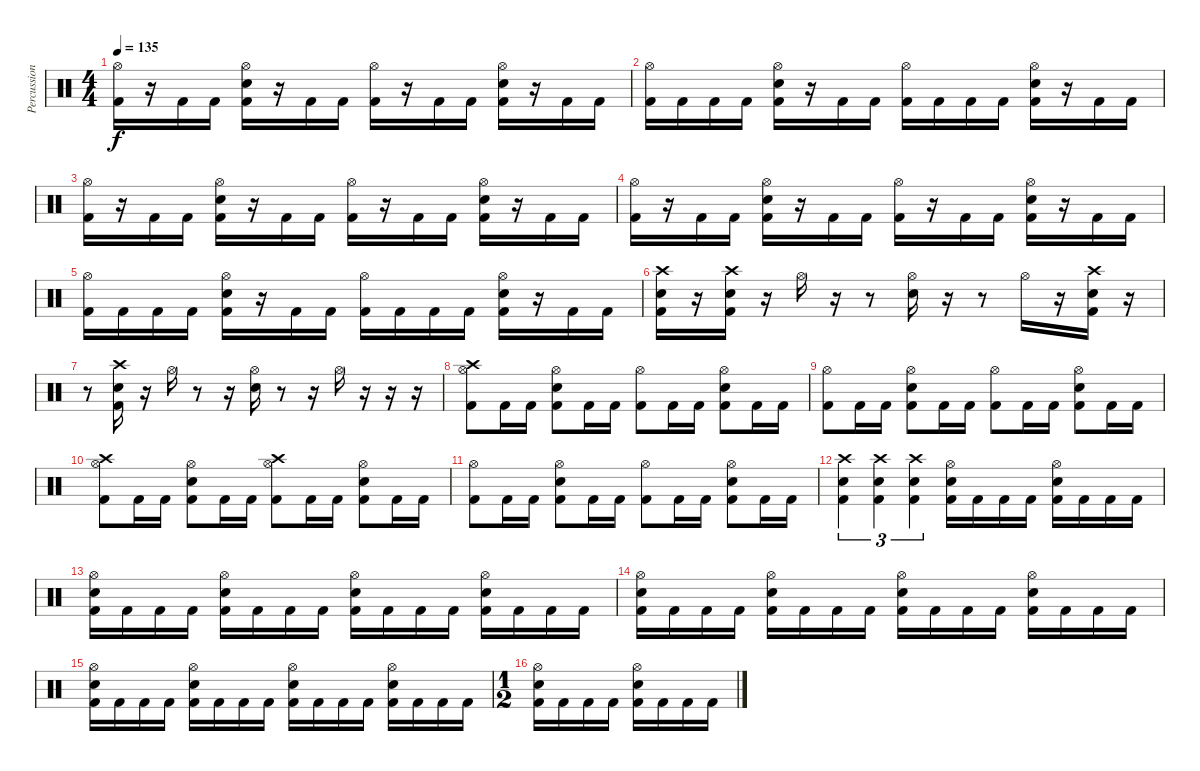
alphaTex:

\track ("Percussions" "Percussion") {instrument percussion}
\staff {score}
\articulation defaults
\ts (4 4)
\tempo 135
\clef neutral
\ks c
("Hi-Hat (open)" "Kick (hit) 2").16{dy f} r.16 "Kick (hit) 2".16 "Kick (hit) 2".16 ("Hi-Hat (open)" "Snare (hit) 2" "Kick (hit) 2").16 r.16 "Kick (hit) 2".16 "Kick (hit) 2".16 ("Hi-Hat (open)" "Kick (hit) 2").16 r.16 "Kick (hit) 2".16 "Kick (hit) 2".16 ("Hi-Hat (open)" "Snare (hit) 2" "Kick (hit) 2").16 r.16 "Kick (hit) 2".16 "Kick (hit) 2".16 |
("Hi-Hat (open)" "Kick (hit) 2").16 "Kick (hit) 2".16 "Kick (hit) 2".16 "Kick (hit) 2".16 ("Hi-Hat (open)" "Snare (hit) 2" "Kick (hit) 2").16 r.16 "Kick (hit) 2".16 "Kick (hit) 2".16 ("Hi-Hat (open)" "Kick (hit) 2").16 "Kick (hit) 2".16 "Kick (hit) 2".16 "Kick (hit) 2".16 ("Hi-Hat (open)" "Snare (hit) 2" "Kick (hit) 2").16 r.16 "Kick (hit) 2".16 "Kick (hit) 2".16 |
("Hi-Hat (open)" "Kick (hit) 2").16 r.16 "Kick (hit) 2".16 "Kick (hit) 2".16 ("Hi-Hat (open)" "Snare (hit) 2" "Kick (hit) 2").16 r.16 "Kick (hit) 2".16 "Kick (hit) 2".16 ("Hi-Hat (open)" "Kick (hit) 2").16 r.16 "Kick (hit) 2".16 "Kick (hit) 2".16 ("Hi-Hat (open)" "Snare (hit) 2" "Kick (hit) 2").16 r.16 "Kick (hit) 2".16 "Kick (hit) 2".16 |
("Hi-Hat (open)" "Kick (hit) 2").16 r.16 "Kick (hit) 2".16 "Kick (hit) 2".16 ("Hi-Hat (open)" "Snare (hit) 2" "Kick (hit) 2").16 r.16 "Kick (hit) 2".16 "Kick (hit) 2".16 ("Hi-Hat (open)" "Kick (hit) 2").16 r.16 "Kick (hit) 2".16 "Kick (hit) 2".16 ("Hi-Hat (open)" "Snare (hit) 2" "Kick (hit) 2").16 r.16 "Kick (hit) 2".16 "Kick (hit) 2".16 |
("Hi-Hat (open)" "Kick (hit) 2").16 "Kick (hit) 2".16 "Kick (hit) 2".16 "Kick (hit) 2".16 ("Hi-Hat (open)" "Snare (hit) 2" "Kick (hit) 2").16 r.16 "Kick (hit) 2".16 "Kick (hit) 2".16 ("Hi-Hat (open)" "Kick (hit) 2").16 "Kick (hit) 2".16 "Kick (hit) 2".16 "Kick (hit) 2".16 ("Hi-Hat (open)" "Snare (hit) 2" "Kick (hit) 2").16 r.16 "Kick (hit) 2".16 "Kick (hit) 2".16 |
("Crash high (hit)" "Snare (hit) 2" "Kick (hit) 2").16 r.16 ("Crash high (hit)" "Snare (hit) 2" "Kick (hit) 2").16 r.16 "Hi-Hat (open)".16 r.16 r.8 ("Hi-Hat (open)" "Snare (hit) 2").16 r.16 r.8 "Hi-Hat (open)".16 r.16 ("Crash high (hit)" "Snare (hit) 2" "Kick (hit) 2").16 r.16 |
r.8 ("Crash high (hit)" "Snare (hit) 2" "Kick (hit) 2").16 r.16 "Hi-Hat (open)".16 r.8 r.16 ("Hi-Hat (open)" "Snare (hit) 2").16 r.8 r.16 "Hi-Hat (open)".16 r.16 r.16 r.16 |
("Crash high (hit)" "Hi-Hat (open)" "Kick (hit) 2").8 "Kick (hit) 2".16 "Kick (hit) 2".16 ("Snare (hit) 2" "Hi-Hat (open)" "Kick (hit) 2").8 "Kick (hit) 2".16 "Kick (hit) 2".16 ("Hi-Hat (open)" "Kick (hit) 2").8 "Kick (hit) 2".16 "Kick (hit) 2".16 ("Hi-Hat (open)" "Snare (hit) 2" "Kick (hit) 2").8 "Kick (hit) 2".16 "Kick (hit) 2".16 |
("Hi-Hat (open)" "Kick (hit) 2").8 "Kick (hit) 2".16 "Kick (hit) 2".16 ("Snare (hit) 2" "Hi-Hat (open)" "Kick (hit) 2").8 "Kick (hit) 2".16 "Kick (hit) 2".16 ("Hi-Hat (open)" "Kick (hit) 2").8 "Kick (hit) 2".16 "Kick (hit) 2".16 ("Hi-Hat (open)" "Snare (hit) 2" "Kick (hit) 2").8 "Kick (hit) 2".16 "Kick (hit) 2".16 |
("Crash high (hit)" "Hi-Hat (open)" "Kick (hit) 2").8 "Kick (hit) 2".16 "Kick (hit) 2".16 ("Snare (hit) 2" "Hi-Hat (open)" "Kick (hit) 2").8 "Kick (hit) 2".16 "Kick (hit) 2".16 ("Crash high (hit)" "Hi-Hat (open)" "Kick (hit) 2").8 "Kick (hit) 2".16 "Kick (hit) 2".16 ("Hi-Hat (open)" "Snare (hit) 2" "Kick (hit) 2").8 "Kick (hit) 2".16 "Kick (hit) 2".16 |
("Hi-Hat (open)" "Kick (hit) 2").8 "Kick (hit) 2".16 "Kick (hit) 2".16 ("Snare (hit) 2" "Hi-Hat (open)" "Kick (hit) 2").8 "Kick (hit) 2".16 "Kick (hit) 2".16 ("Hi-Hat (open)" "Kick (hit) 2").8 "Kick (hit) 2".16 "Kick (hit) 2".16 ("Hi-Hat (open)" "Snare (hit) 2" "Kick (hit) 2").8 "Kick (hit) 2".16 "Kick (hit) 2".16 |
("Snare (hit) 2" "Crash high (hit)" "Kick (hit) 2").4{tu (3 2)} ("Snare (hit) 2" "Crash high (hit)" "Kick (hit) 2").4{tu (3 2)} ("Snare (hit) 2" "Crash high (hit)" "Kick (hit) 2").4{tu (3 2)} ("Snare (hit) 2" "Hi-Hat (open)" "Kick (hit) 2").16 "Kick (hit) 2".16 "Kick (hit) 2".16 "Kick (hit) 2".16 ("Snare (hit) 2" "Hi-Hat (open)" "Kick (hit) 2").16 "Kick (hit) 2".16 "Kick (hit) 2".16 "Kick (hit) 2".16 |
("Snare (hit) 2" "Hi-Hat (open)" "Kick (hit) 2").16 "Kick (hit) 2".16 "Kick (hit) 2".16 "Kick (hit) 2".16 ("Snare (hit) 2" "Hi-Hat (open)" "Kick (hit) 2").16 "Kick (hit) 2".16 "Kick (hit) 2".16 "Kick (hit) 2".16 ("Snare (hit) 2" "Hi-Hat (open)" "Kick (hit) 2").16 "Kick (hit) 2".16 "Kick (hit) 2".16 "Kick (hit) 2".16 ("Snare (hit) 2" "Hi-Hat (open)" "Kick (hit) 2").16 "Kick (hit) 2".16 "Kick (hit) 2".16 "Kick (hit) 2".16 |
("Snare (hit) 2" "Hi-Hat (open)" "Kick (hit) 2").16 "Kick (hit) 2".16 "Kick (hit) 2".16 "Kick (hit) 2".16 ("Snare (hit) 2" "Hi-Hat (open)" "Kick (hit) 2").16 "Kick (hit) 2".16 "Kick (hit) 2".16 "Kick (hit) 2".16 ("Snare (hit) 2" "Hi-Hat (open)" "Kick (hit) 2").16 "Kick (hit) 2".16 "Kick (hit) 2".16 "Kick (hit) 2".16 ("Snare (hit) 2" "Hi-Hat (open)" "Kick (hit) 2").16 "Kick (hit) 2".16 "Kick (hit) 2".16 "Kick (hit) 2".16 |
("Snare (hit) 2" "Hi-Hat (open)" "Kick (hit) 2").16 "Kick (hit) 2".16 "Kick (hit) 2".16 "Kick (hit) 2".16 ("Snare (hit) 2" "Hi-Hat (open)" "Kick (hit) 2").16 "Kick (hit) 2".16 "Kick (hit) 2".16 "Kick (hit) 2".16 ("Snare (hit) 2" "Hi-Hat (open)" "Kick (hit) 2").16 "Kick (hit) 2".16 "Kick (hit) 2".16 "Kick (hit) 2".16 ("Snare (hit) 2" "Hi-Hat (open)" "Kick (hit) 2").16 "Kick (hit) 2".16 "Kick (hit) 2".16 "Kick (hit) 2".16 |
\ts (1 2)
("Snare (hit) 2" "Hi-Hat (open)" "Kick (hit) 2").16 "Kick (hit) 2".16 "Kick (hit) 2".16 "Kick (hit) 2".16 ("Snare (hit) 2" "Hi-Hat (open)" "Kick (hit) 2").16 "Kick (hit) 2".16 "Kick (hit) 2".16 "Kick (hit) 2".16
